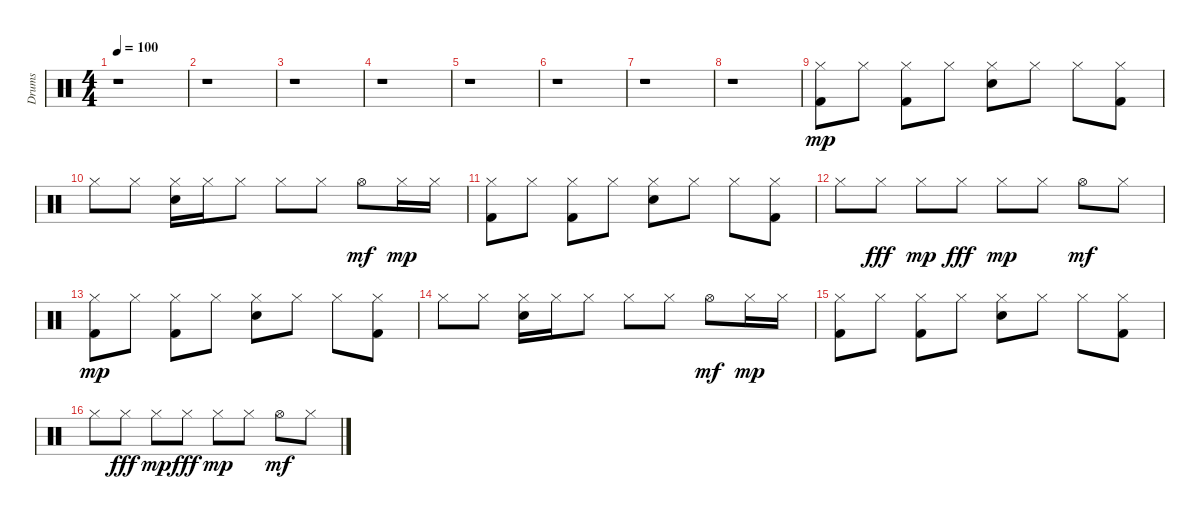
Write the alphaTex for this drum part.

\track ("Drums" "Drums") {instrument percussion}
\staff {score}
\articulation defaults
\ts (4 4)
\tempo 100
\clef neutral
\ks c
r.1{dy mp balance 16} |
r.1 |
r.1 |
r.1 |
r.1 |
r.1 |
r.1 |
r.1 |
("Kick (hit) 2" "Hi-Hat (closed)").8{balance 0} "Hi-Hat (closed)".8 ("Kick (hit) 2" "Hi-Hat (closed)").8 "Hi-Hat (closed)".8 ("Hi-Hat (closed)" "Electric Snare (hit)").8 "Hi-Hat (closed)".8 "Hi-Hat (closed)".8 ("Kick (hit) 2" "Hi-Hat (closed)").8 |
"Hi-Hat (closed)".8 "Hi-Hat (closed)".8 ("Hi-Hat (closed)" "Electric Snare (hit)").16 "Hi-Hat (closed)".16 "Hi-Hat (closed)".8 "Hi-Hat (closed)".8 "Hi-Hat (closed)".8 "Hi-Hat (open)".8{dy mf} "Hi-Hat (closed)".16{dy mp} "Hi-Hat (closed)".16 |
("Kick (hit) 2" "Hi-Hat (closed)").8{balance 16} "Hi-Hat (closed)".8 ("Kick (hit) 2" "Hi-Hat (closed)").8 "Hi-Hat (closed)".8 ("Hi-Hat (closed)" "Electric Snare (hit)").8 "Hi-Hat (closed)".8 "Hi-Hat (closed)".8 ("Kick (hit) 2" "Hi-Hat (closed)").8 |
"Hi-Hat (closed)".8 "Hi-Hat (closed)".8{dy fff} "Hi-Hat (closed)".8{dy mp} "Hi-Hat (closed)".8{dy fff} "Hi-Hat (closed)".8{dy mp} "Hi-Hat (closed)".8 "Hi-Hat (open)".8{dy mf} "Hi-Hat (closed)".8 |
("Kick (hit) 2" "Hi-Hat (closed)").8{dy mp balance 0} "Hi-Hat (closed)".8 ("Kick (hit) 2" "Hi-Hat (closed)").8 "Hi-Hat (closed)".8 ("Hi-Hat (closed)" "Electric Snare (hit)").8 "Hi-Hat (closed)".8 "Hi-Hat (closed)".8 ("Kick (hit) 2" "Hi-Hat (closed)").8 |
"Hi-Hat (closed)".8 "Hi-Hat (closed)".8 ("Hi-Hat (closed)" "Electric Snare (hit)").16 "Hi-Hat (closed)".16 "Hi-Hat (closed)".8 "Hi-Hat (closed)".8 "Hi-Hat (closed)".8 "Hi-Hat (open)".8{dy mf} "Hi-Hat (closed)".16{dy mp} "Hi-Hat (closed)".16 |
("Kick (hit) 2" "Hi-Hat (closed)").8{balance 16} "Hi-Hat (closed)".8 ("Kick (hit) 2" "Hi-Hat (closed)").8 "Hi-Hat (closed)".8 ("Hi-Hat (closed)" "Electric Snare (hit)").8 "Hi-Hat (closed)".8 "Hi-Hat (closed)".8 ("Kick (hit) 2" "Hi-Hat (closed)").8 |
"Hi-Hat (closed)".8 "Hi-Hat (closed)".8{dy fff} "Hi-Hat (closed)".8{dy mp} "Hi-Hat (closed)".8{dy fff} "Hi-Hat (closed)".8{dy mp} "Hi-Hat (closed)".8 "Hi-Hat (open)".8{dy mf} "Hi-Hat (closed)".8
